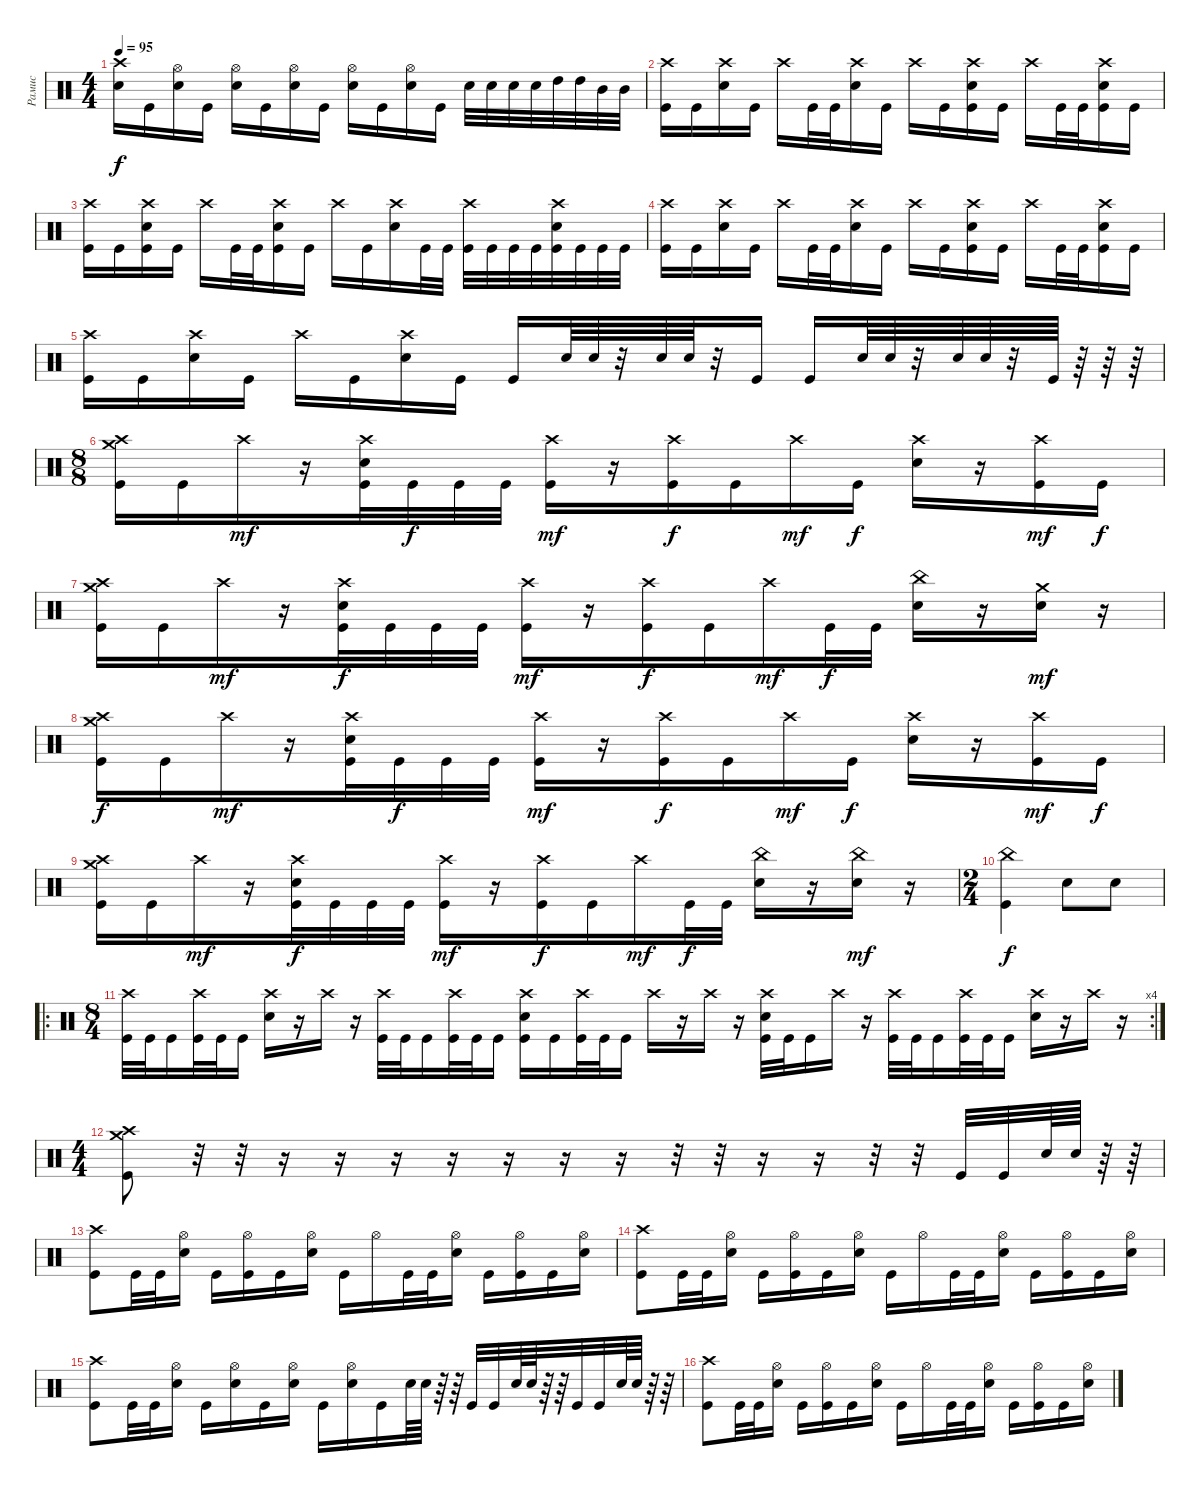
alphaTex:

\track ("Рамис" "Рамис") {instrument percussion}
\staff {score}
\articulation defaults
\ts (4 4)
\tempo 95
\clef neutral
\ks c
("Electric Snare (hit)" "Crash high (hit)").16{dy f} "Kick (hit)".16 ("Electric Snare (hit)" "Hi-Hat (open)").16 "Kick (hit)".16 ("Electric Snare (hit)" "Hi-Hat (open)").16 "Kick (hit)".16 ("Electric Snare (hit)" "Hi-Hat (open)").16 "Kick (hit)".16 ("Electric Snare (hit)" "Hi-Hat (open)").16 "Kick (hit)".16 ("Electric Snare (hit)" "Hi-Hat (open)").16 "Kick (hit)".16 "Electric Snare (hit)".32 "Electric Snare (hit)".32 "Electric Snare (hit)".32 "Electric Snare (hit)".32 "High Tom (hit)".32 "High Tom (hit)".32 "Mid Tom (hit)".32 "Mid Tom (hit)".32 |
("Kick (hit)" "Crash high (hit)").16 "Kick (hit)".16 ("Electric Snare (hit)" "Crash high (hit)").16 "Kick (hit)".16 "Crash high (hit)".16 "Kick (hit)".32 "Kick (hit)".32 ("Electric Snare (hit)" "Crash high (hit)").16 "Kick (hit)".16 "Crash high (hit)".16 "Kick (hit)".16 ("Kick (hit)" "Electric Snare (hit)" "Crash high (hit)").16 "Kick (hit)".16 "Crash high (hit)".16 "Kick (hit)".32 "Kick (hit)".32 ("Kick (hit)" "Electric Snare (hit)" "Crash high (hit)").16 "Kick (hit)".16 |
("Kick (hit)" "Crash high (hit)").16 "Kick (hit)".16 ("Kick (hit)" "Electric Snare (hit)" "Crash high (hit)").16 "Kick (hit)".16 "Crash high (hit)".16 "Kick (hit)".32 "Kick (hit)".32 ("Kick (hit)" "Electric Snare (hit)" "Crash high (hit)").16 "Kick (hit)".16 "Crash high (hit)".16 "Kick (hit)".16 ("Electric Snare (hit)" "Crash high (hit)").16 "Kick (hit)".32 "Kick (hit)".32 ("Kick (hit)" "Crash high (hit)").32 "Kick (hit)".32 "Kick (hit)".32 "Kick (hit)".32 ("Kick (hit)" "Electric Snare (hit)" "Crash high (hit)").32 "Kick (hit)".32 "Kick (hit)".32 "Kick (hit)".32 |
("Kick (hit)" "Crash high (hit)").16 "Kick (hit)".16 ("Electric Snare (hit)" "Crash high (hit)").16 "Kick (hit)".16 "Crash high (hit)".16 "Kick (hit)".32 "Kick (hit)".32 ("Electric Snare (hit)" "Crash high (hit)").16 "Kick (hit)".16 "Crash high (hit)".16 "Kick (hit)".16 ("Kick (hit)" "Electric Snare (hit)" "Crash high (hit)").16 "Kick (hit)".16 "Crash high (hit)".16 "Kick (hit)".32 "Kick (hit)".32 ("Kick (hit)" "Electric Snare (hit)" "Crash high (hit)").16 "Kick (hit)".16 |
("Crash high (hit)" "Kick (hit)").16 "Kick (hit)".16 ("Crash high (hit)" "Electric Snare (hit)").16 "Kick (hit)".16 "Crash high (hit)".16 "Kick (hit)".16 ("Crash high (hit)" "Electric Snare (hit)").16 "Kick (hit)".16 "Kick (hit)".16 "Electric Snare (hit)".64 "Electric Snare (hit)".64 r.32 "Electric Snare (hit)".64 "Electric Snare (hit)".64 r.32 "Kick (hit)".16 "Kick (hit)".16 "Electric Snare (hit)".64 "Electric Snare (hit)".64 r.32 "Electric Snare (hit)".64 "Electric Snare (hit)".64 r.32 "Kick (hit)".64 r.64 r.64 r.64 |
\ts (8 8)
("Crash high (hit)" "Crash medium (hit)" "Kick (hit)").16 "Kick (hit)".16 "Crash high (hit)".16{dy mf} r.16 ("Crash high (hit)" "Electric Snare (hit)" "Kick (hit)").32 "Kick (hit)".32{dy f} "Kick (hit)".32 "Kick (hit)".32 ("Crash high (hit)" "Kick (hit)").16{dy mf} r.16 ("Crash high (hit)" "Kick (hit)").16{dy f} "Kick (hit)".16 "Crash high (hit)".16{dy mf} "Kick (hit)".16{dy f} ("Crash high (hit)" "Electric Snare (hit)").16 r.16 ("Crash high (hit)" "Kick (hit)").16{dy mf} "Kick (hit)".16{dy f} |
("Crash medium (hit)" "Crash high (hit)" "Kick (hit)").16 "Kick (hit)".16 "Crash high (hit)".16{dy mf} r.16 ("Crash high (hit)" "Electric Snare (hit)" "Kick (hit)").32{dy f} "Kick (hit)".32 "Kick (hit)".32 "Kick (hit)".32 ("Crash high (hit)" "Kick (hit)").16{dy mf} r.16 ("Crash high (hit)" "Kick (hit)").16{dy f} "Kick (hit)".16 "Crash high (hit)".16{dy mf} "Kick (hit)".32{dy f} "Kick (hit)".32 ("China (hit)" "Electric Snare (hit)").16 r.16 ("Crash medium (hit)" "Electric Snare (hit)").16{dy mf} r.16 |
("Crash high (hit)" "Crash medium (hit)" "Kick (hit)").16{dy f} "Kick (hit)".16 "Crash high (hit)".16{dy mf} r.16 ("Crash high (hit)" "Electric Snare (hit)" "Kick (hit)").32 "Kick (hit)".32{dy f} "Kick (hit)".32 "Kick (hit)".32 ("Crash high (hit)" "Kick (hit)").16{dy mf} r.16 ("Crash high (hit)" "Kick (hit)").16{dy f} "Kick (hit)".16 "Crash high (hit)".16{dy mf} "Kick (hit)".16{dy f} ("Crash high (hit)" "Electric Snare (hit)").16 r.16 ("Crash high (hit)" "Kick (hit)").16{dy mf} "Kick (hit)".16{dy f} |
("Crash medium (hit)" "Crash high (hit)" "Kick (hit)").16 "Kick (hit)".16 "Crash high (hit)".16{dy mf} r.16 ("Crash high (hit)" "Electric Snare (hit)" "Kick (hit)").32{dy f} "Kick (hit)".32 "Kick (hit)".32 "Kick (hit)".32 ("Crash high (hit)" "Kick (hit)").16{dy mf} r.16 ("Crash high (hit)" "Kick (hit)").16{dy f} "Kick (hit)".16 "Crash high (hit)".16{dy mf} "Kick (hit)".32{dy f} "Kick (hit)".32 ("China (hit)" "Electric Snare (hit)").16 r.16 ("China (hit)" "Electric Snare (hit)").16{dy mf} r.16 |
\ts (2 4)
("China (hit)"{be (custom 0 10 30 6 38 5 40 5 45 4 52 4 56 3 58 2 60 0)} "Kick (hit)").4{dy f} "Electric Snare (hit)".8 "Electric Snare (hit)".8 |
\ro
\rc 4
\ts (8 4)
("Crash high (hit)" "Kick (hit)").32 "Kick (hit)".32 "Kick (hit)".16 ("Crash high (hit)" "Kick (hit)").32 "Kick (hit)".32 "Kick (hit)".16 ("Crash high (hit)" "Electric Snare (hit)").16 r.16 "Crash high (hit)".16 r.16 ("Crash high (hit)" "Kick (hit)").32 "Kick (hit)".32 "Kick (hit)".16 ("Crash high (hit)" "Kick (hit)").32 "Kick (hit)".32 "Kick (hit)".16 ("Crash high (hit)" "Electric Snare (hit)" "Kick (hit)").16 "Kick (hit)".16 ("Crash high (hit)" "Kick (hit)").32 "Kick (hit)".32 "Kick (hit)".16 "Crash high (hit)".16 r.16 "Crash high (hit)".16 r.16 ("Crash high (hit)" "Electric Snare (hit)" "Kick (hit)").32 "Kick (hit)".32 "Kick (hit)".16 "Crash high (hit)".16 r.16 ("Crash high (hit)" "Kick (hit)").32 "Kick (hit)".32 "Kick (hit)".16 ("Crash high (hit)" "Kick (hit)").32 "Kick (hit)".32 "Kick (hit)".16 ("Crash high (hit)" "Electric Snare (hit)").16 r.16 "Crash high (hit)".16 r.16 |
\ts (4 4)
("Crash high (hit)" "Crash medium (hit)" "Kick (hit)").8 r.32 r.32 r.16 r.16 r.16 r.16 r.16 r.16 r.16 r.32 r.32 r.16 r.16 r.32 r.32 "Kick (hit)".32 "Kick (hit)".32 "Electric Snare (hit)".64 "Electric Snare (hit)".64 r.64 r.64 |
("Crash high (hit)" "Kick (hit)").8 "Kick (hit)".32 "Kick (hit)".32 ("Hi-Hat (open)" "Electric Snare (hit)").16 "Kick (hit)".16 ("Hi-Hat (open)" "Kick (hit)").16 "Kick (hit)".16 ("Hi-Hat (open)" "Electric Snare (hit)").16 "Kick (hit)".16 "Hi-Hat (open)".16 "Kick (hit)".32 "Kick (hit)".32 ("Hi-Hat (open)" "Electric Snare (hit)").16 "Kick (hit)".16 ("Hi-Hat (open)" "Kick (hit)").16 "Kick (hit)".16 ("Hi-Hat (open)" "Electric Snare (hit)").16 |
("Crash high (hit)" "Kick (hit)").8 "Kick (hit)".32 "Kick (hit)".32 ("Hi-Hat (open)" "Electric Snare (hit)").16 "Kick (hit)".16 ("Hi-Hat (open)" "Kick (hit)").16 "Kick (hit)".16 ("Hi-Hat (open)" "Electric Snare (hit)").16 "Kick (hit)".16 "Hi-Hat (open)".16 "Kick (hit)".32 "Kick (hit)".32 ("Hi-Hat (open)" "Electric Snare (hit)").16 "Kick (hit)".16 ("Hi-Hat (open)" "Kick (hit)").16 "Kick (hit)".16 ("Hi-Hat (open)" "Electric Snare (hit)").16 |
("Crash high (hit)" "Kick (hit)").8 "Kick (hit)".32 "Kick (hit)".32 ("Hi-Hat (open)" "Electric Snare (hit)").16 "Kick (hit)".16 ("Hi-Hat (open)" "Electric Snare (hit)").16 "Kick (hit)".16 ("Hi-Hat (open)" "Electric Snare (hit)").16 "Kick (hit)".16 ("Hi-Hat (open)" "Electric Snare (hit)").16 "Kick (hit)".16 "Electric Snare (hit)".64 "Electric Snare (hit)".64 r.64 r.64 "Kick (hit)".32 "Kick (hit)".32 "Electric Snare (hit)".64 "Electric Snare (hit)".64 r.64 r.64 "Kick (hit)".32 "Kick (hit)".32 "Electric Snare (hit)".64 "Electric Snare (hit)".64 r.64 r.64 |
("Crash high (hit)" "Kick (hit)").8 "Kick (hit)".32 "Kick (hit)".32 ("Hi-Hat (open)" "Electric Snare (hit)").16 "Kick (hit)".16 ("Hi-Hat (open)" "Kick (hit)").16 "Kick (hit)".16 ("Hi-Hat (open)" "Electric Snare (hit)").16 "Kick (hit)".16 "Hi-Hat (open)".16 "Kick (hit)".32 "Kick (hit)".32 ("Hi-Hat (open)" "Electric Snare (hit)").16 "Kick (hit)".16 ("Hi-Hat (open)" "Kick (hit)").16 "Kick (hit)".16 ("Hi-Hat (open)" "Electric Snare (hit)").16
